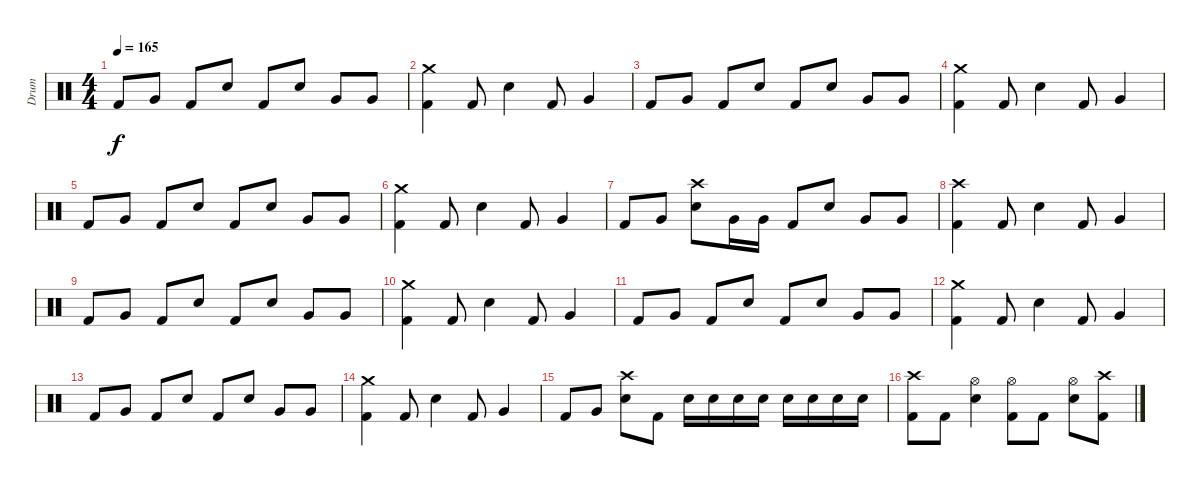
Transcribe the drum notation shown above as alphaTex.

\track ("Drum" "Drum") {instrument percussion}
\staff {score}
\articulation defaults
\ts (4 4)
\tempo 165
\clef neutral
\ks c "Kick (hit) 2".8{dy f} "Very Low Tom (hit)".8 "Kick (hit) 2".8 "Electric Snare (hit)".8 "Kick (hit) 2".8 "Electric Snare (hit)".8 "Very Low Tom (hit)".8 "Very Low Tom (hit)".8
|
("Crash medium (hit)" "Kick (hit) 2").4 "Kick (hit) 2".8 "Electric Snare (hit)".4 "Kick (hit) 2".8 "Very Low Tom (hit)".4 |
"Kick (hit) 2".8 "Very Low Tom (hit)".8 "Kick (hit) 2".8 "Electric Snare (hit)".8 "Kick (hit) 2".8 "Electric Snare (hit)".8 "Very Low Tom (hit)".8 "Very Low Tom (hit)".8 |
("Crash medium (hit)" "Kick (hit) 2").4 "Kick (hit) 2".8 "Electric Snare (hit)".4 "Kick (hit) 2".8 "Very Low Tom (hit)".4 |
"Kick (hit) 2".8 "Very Low Tom (hit)".8 "Kick (hit) 2".8 "Electric Snare (hit)".8 "Kick (hit) 2".8 "Electric Snare (hit)".8 "Very Low Tom (hit)".8 "Very Low Tom (hit)".8 |
("Crash medium (hit)" "Kick (hit) 2").4 "Kick (hit) 2".8 "Electric Snare (hit)".4 "Kick (hit) 2".8 "Very Low Tom (hit)".4 |
"Kick (hit) 2".8 "Very Low Tom (hit)".8 ("Crash high (hit)" "Electric Snare (hit)").8 "Very Low Tom (hit)".16 "Very Low Tom (hit)".16 "Kick (hit) 2".8 "Electric Snare (hit)".8 "Very Low Tom (hit)".8 "Very Low Tom (hit)".8 |
("Crash high (hit)" "Kick (hit) 2").4 "Kick (hit) 2".8 "Electric Snare (hit)".4 "Kick (hit) 2".8 "Very Low Tom (hit)".4 |
"Kick (hit) 2".8 "Very Low Tom (hit)".8 "Kick (hit) 2".8 "Electric Snare (hit)".8 "Kick (hit) 2".8 "Electric Snare (hit)".8 "Very Low Tom (hit)".8 "Very Low Tom (hit)".8 |
("Crash medium (hit)" "Kick (hit) 2").4 "Kick (hit) 2".8 "Electric Snare (hit)".4 "Kick (hit) 2".8 "Very Low Tom (hit)".4 |
"Kick (hit) 2".8 "Very Low Tom (hit)".8 "Kick (hit) 2".8 "Electric Snare (hit)".8 "Kick (hit) 2".8 "Electric Snare (hit)".8 "Very Low Tom (hit)".8 "Very Low Tom (hit)".8 |
("Crash medium (hit)" "Kick (hit) 2").4 "Kick (hit) 2".8 "Electric Snare (hit)".4 "Kick (hit) 2".8 "Very Low Tom (hit)".4 |
"Kick (hit) 2".8 "Very Low Tom (hit)".8 "Kick (hit) 2".8 "Electric Snare (hit)".8 "Kick (hit) 2".8 "Electric Snare (hit)".8 "Very Low Tom (hit)".8 "Very Low Tom (hit)".8 |
("Crash medium (hit)" "Kick (hit) 2").4 "Kick (hit) 2".8 "Electric Snare (hit)".4 "Kick (hit) 2".8 "Very Low Tom (hit)".4 |
"Kick (hit) 2".8 "Very Low Tom (hit)".8 ("Crash high (hit)" "Electric Snare (hit)").8 "Kick (hit) 2".8 "Electric Snare (hit)".16 "Electric Snare (hit)".16 "Electric Snare (hit)".16 "Electric Snare (hit)".16 "Electric Snare (hit)".16 "Electric Snare (hit)".16 "Electric Snare (hit)".16 "Electric Snare (hit)".16 |
("Crash high (hit)" "Kick (hit) 2").8 "Kick (hit) 2".8 ("Hi-Hat (open)" "Electric Snare (hit)").4 ("Hi-Hat (open)" "Kick (hit) 2").8 "Kick (hit) 2".8 ("Hi-Hat (open)" "Electric Snare (hit)").8 ("Crash high (hit)" "Kick (hit) 2").8
